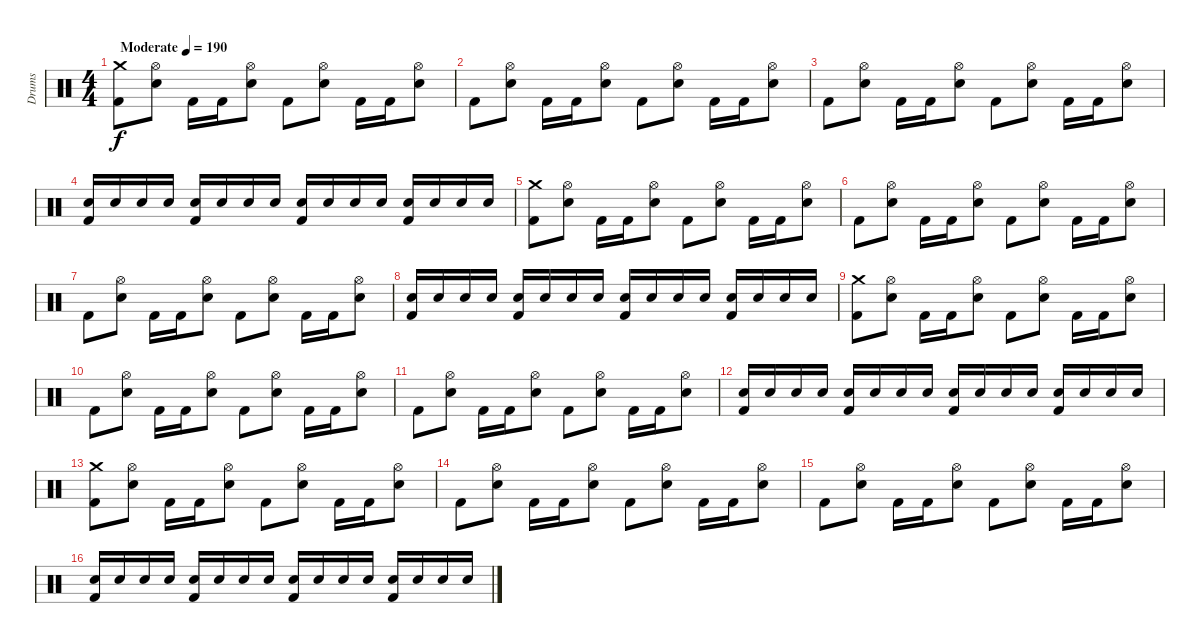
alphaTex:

\track ("Drums" "Drums") {instrument percussion}
\staff {score}
\articulation defaults
\ts (4 4)
\tempo (190 "Moderate")
\clef neutral
\ks c
("Crash medium (hit)" "Kick (hit) 2").8{dy f} ("Hi-Hat (open)" "Electric Snare (hit)").8 "Kick (hit) 2".16 "Kick (hit) 2".16 ("Hi-Hat (open)" "Electric Snare (hit)").8 "Kick (hit) 2".8 ("Hi-Hat (open)" "Electric Snare (hit)").8 "Kick (hit) 2".16 "Kick (hit) 2".16 ("Hi-Hat (open)" "Electric Snare (hit)").8 |
"Kick (hit) 2".8 ("Hi-Hat (open)" "Electric Snare (hit)").8 "Kick (hit) 2".16 "Kick (hit) 2".16 ("Hi-Hat (open)" "Electric Snare (hit)").8 "Kick (hit) 2".8 ("Hi-Hat (open)" "Electric Snare (hit)").8 "Kick (hit) 2".16 "Kick (hit) 2".16 ("Hi-Hat (open)" "Electric Snare (hit)").8 |
"Kick (hit) 2".8 ("Hi-Hat (open)" "Electric Snare (hit)").8 "Kick (hit) 2".16 "Kick (hit) 2".16 ("Hi-Hat (open)" "Electric Snare (hit)").8 "Kick (hit) 2".8 ("Hi-Hat (open)" "Electric Snare (hit)").8 "Kick (hit) 2".16 "Kick (hit) 2".16 ("Hi-Hat (open)" "Electric Snare (hit)").8 |
("Electric Snare (hit)" "Kick (hit) 2").16 "Electric Snare (hit)".16 "Electric Snare (hit)".16 "Electric Snare (hit)".16 ("Electric Snare (hit)" "Kick (hit) 2").16 "Electric Snare (hit)".16 "Electric Snare (hit)".16 "Electric Snare (hit)".16 ("Electric Snare (hit)" "Kick (hit) 2").16 "Electric Snare (hit)".16 "Electric Snare (hit)".16 "Electric Snare (hit)".16 ("Electric Snare (hit)" "Kick (hit) 2").16 "Electric Snare (hit)".16 "Electric Snare (hit)".16 "Electric Snare (hit)".16 |
("Crash medium (hit)" "Kick (hit) 2").8 ("Hi-Hat (open)" "Electric Snare (hit)").8 "Kick (hit) 2".16 "Kick (hit) 2".16 ("Hi-Hat (open)" "Electric Snare (hit)").8 "Kick (hit) 2".8 ("Hi-Hat (open)" "Electric Snare (hit)").8 "Kick (hit) 2".16 "Kick (hit) 2".16 ("Hi-Hat (open)" "Electric Snare (hit)").8 |
"Kick (hit) 2".8 ("Hi-Hat (open)" "Electric Snare (hit)").8 "Kick (hit) 2".16 "Kick (hit) 2".16 ("Hi-Hat (open)" "Electric Snare (hit)").8 "Kick (hit) 2".8 ("Hi-Hat (open)" "Electric Snare (hit)").8 "Kick (hit) 2".16 "Kick (hit) 2".16 ("Hi-Hat (open)" "Electric Snare (hit)").8 |
"Kick (hit) 2".8 ("Hi-Hat (open)" "Electric Snare (hit)").8 "Kick (hit) 2".16 "Kick (hit) 2".16 ("Hi-Hat (open)" "Electric Snare (hit)").8 "Kick (hit) 2".8 ("Hi-Hat (open)" "Electric Snare (hit)").8 "Kick (hit) 2".16 "Kick (hit) 2".16 ("Hi-Hat (open)" "Electric Snare (hit)").8 |
("Electric Snare (hit)" "Kick (hit) 2").16 "Electric Snare (hit)".16 "Electric Snare (hit)".16 "Electric Snare (hit)".16 ("Electric Snare (hit)" "Kick (hit) 2").16 "Electric Snare (hit)".16 "Electric Snare (hit)".16 "Electric Snare (hit)".16 ("Electric Snare (hit)" "Kick (hit) 2").16 "Electric Snare (hit)".16 "Electric Snare (hit)".16 "Electric Snare (hit)".16 ("Electric Snare (hit)" "Kick (hit) 2").16 "Electric Snare (hit)".16 "Electric Snare (hit)".16 "Electric Snare (hit)".16 |
("Crash medium (hit)" "Kick (hit) 2").8 ("Hi-Hat (open)" "Electric Snare (hit)").8 "Kick (hit) 2".16 "Kick (hit) 2".16 ("Hi-Hat (open)" "Electric Snare (hit)").8 "Kick (hit) 2".8 ("Hi-Hat (open)" "Electric Snare (hit)").8 "Kick (hit) 2".16 "Kick (hit) 2".16 ("Hi-Hat (open)" "Electric Snare (hit)").8 |
"Kick (hit) 2".8 ("Hi-Hat (open)" "Electric Snare (hit)").8 "Kick (hit) 2".16 "Kick (hit) 2".16 ("Hi-Hat (open)" "Electric Snare (hit)").8 "Kick (hit) 2".8 ("Hi-Hat (open)" "Electric Snare (hit)").8 "Kick (hit) 2".16 "Kick (hit) 2".16 ("Hi-Hat (open)" "Electric Snare (hit)").8 |
"Kick (hit) 2".8 ("Hi-Hat (open)" "Electric Snare (hit)").8 "Kick (hit) 2".16 "Kick (hit) 2".16 ("Hi-Hat (open)" "Electric Snare (hit)").8 "Kick (hit) 2".8 ("Hi-Hat (open)" "Electric Snare (hit)").8 "Kick (hit) 2".16 "Kick (hit) 2".16 ("Hi-Hat (open)" "Electric Snare (hit)").8 |
("Electric Snare (hit)" "Kick (hit) 2").16 "Electric Snare (hit)".16 "Electric Snare (hit)".16 "Electric Snare (hit)".16 ("Electric Snare (hit)" "Kick (hit) 2").16 "Electric Snare (hit)".16 "Electric Snare (hit)".16 "Electric Snare (hit)".16 ("Electric Snare (hit)" "Kick (hit) 2").16 "Electric Snare (hit)".16 "Electric Snare (hit)".16 "Electric Snare (hit)".16 ("Electric Snare (hit)" "Kick (hit) 2").16 "Electric Snare (hit)".16 "Electric Snare (hit)".16 "Electric Snare (hit)".16 |
("Crash medium (hit)" "Kick (hit) 2").8 ("Hi-Hat (open)" "Electric Snare (hit)").8 "Kick (hit) 2".16 "Kick (hit) 2".16 ("Hi-Hat (open)" "Electric Snare (hit)").8 "Kick (hit) 2".8 ("Hi-Hat (open)" "Electric Snare (hit)").8 "Kick (hit) 2".16 "Kick (hit) 2".16 ("Hi-Hat (open)" "Electric Snare (hit)").8 |
"Kick (hit) 2".8 ("Hi-Hat (open)" "Electric Snare (hit)").8 "Kick (hit) 2".16 "Kick (hit) 2".16 ("Hi-Hat (open)" "Electric Snare (hit)").8 "Kick (hit) 2".8 ("Hi-Hat (open)" "Electric Snare (hit)").8 "Kick (hit) 2".16 "Kick (hit) 2".16 ("Hi-Hat (open)" "Electric Snare (hit)").8 |
"Kick (hit) 2".8 ("Hi-Hat (open)" "Electric Snare (hit)").8 "Kick (hit) 2".16 "Kick (hit) 2".16 ("Hi-Hat (open)" "Electric Snare (hit)").8 "Kick (hit) 2".8 ("Hi-Hat (open)" "Electric Snare (hit)").8 "Kick (hit) 2".16 "Kick (hit) 2".16 ("Hi-Hat (open)" "Electric Snare (hit)").8 |
("Electric Snare (hit)" "Kick (hit) 2").16 "Electric Snare (hit)".16 "Electric Snare (hit)".16 "Electric Snare (hit)".16 ("Electric Snare (hit)" "Kick (hit) 2").16 "Electric Snare (hit)".16 "Electric Snare (hit)".16 "Electric Snare (hit)".16 ("Electric Snare (hit)" "Kick (hit) 2").16 "Electric Snare (hit)".16 "Electric Snare (hit)".16 "Electric Snare (hit)".16 ("Electric Snare (hit)" "Kick (hit) 2").16 "Electric Snare (hit)".16 "Electric Snare (hit)".16 "Electric Snare (hit)".16
